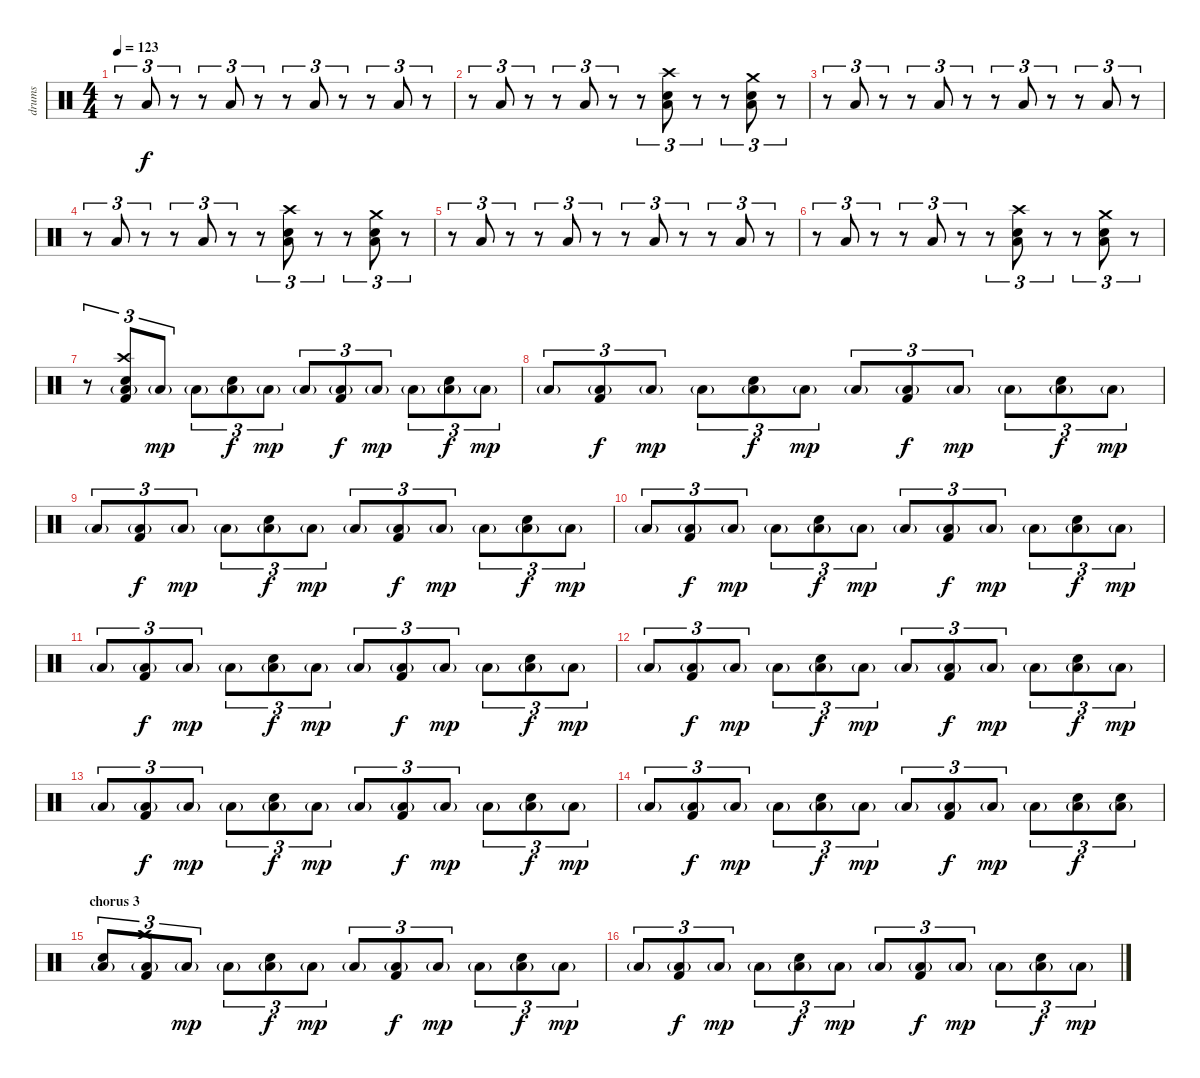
\track ("drums" "drums") {instrument percussion}
\staff {score}
\articulation defaults
\ts (4 4)
\tempo 123
\clef neutral
\ks c
r.8{tu (3 2) txt "" dy f} "Low Floor Tom (hit)".8{tu (3 2) txt ""} r.8{tu (3 2) txt ""} r.8{tu (3 2) txt ""} "Low Floor Tom (hit)".8{tu (3 2) txt ""} r.8{tu (3 2) txt ""} r.8{tu (3 2) txt ""} "Low Floor Tom (hit)".8{tu (3 2) txt ""} r.8{tu (3 2) txt ""} r.8{tu (3 2) txt ""} "Low Floor Tom (hit)".8{tu (3 2) txt ""} r.8{tu (3 2) txt ""} |
r.8{tu (3 2) txt ""} "Low Floor Tom (hit)".8{tu (3 2) txt ""} r.8{tu (3 2) txt ""} r.8{tu (3 2) txt ""} "Low Floor Tom (hit)".8{tu (3 2) txt ""} r.8{tu (3 2) txt ""} r.8{tu (3 2) txt ""} ("Low Floor Tom (hit)" "Electric Snare (hit)" "Crash high (hit)").8{tu (3 2) txt ""} r.8{tu (3 2) txt ""} r.8{tu (3 2) txt ""} ("Low Floor Tom (hit)" "Electric Snare (hit)" "Crash medium (hit)").8{tu (3 2) txt ""} r.8{tu (3 2) txt ""} |
r.8{tu (3 2) txt ""} "Low Floor Tom (hit)".8{tu (3 2) txt ""} r.8{tu (3 2) txt ""} r.8{tu (3 2) txt ""} "Low Floor Tom (hit)".8{tu (3 2) txt ""} r.8{tu (3 2) txt ""} r.8{tu (3 2) txt ""} "Low Floor Tom (hit)".8{tu (3 2) txt ""} r.8{tu (3 2) txt ""} r.8{tu (3 2) txt ""} "Low Floor Tom (hit)".8{tu (3 2) txt ""} r.8{tu (3 2) txt ""} |
r.8{tu (3 2) txt ""} "Low Floor Tom (hit)".8{tu (3 2) txt ""} r.8{tu (3 2) txt ""} r.8{tu (3 2) txt ""} "Low Floor Tom (hit)".8{tu (3 2) txt ""} r.8{tu (3 2) txt ""} r.8{tu (3 2) txt ""} ("Low Floor Tom (hit)" "Electric Snare (hit)" "Crash high (hit)").8{tu (3 2) txt ""} r.8{tu (3 2) txt ""} r.8{tu (3 2) txt ""} ("Low Floor Tom (hit)" "Electric Snare (hit)" "Crash medium (hit)").8{tu (3 2) txt ""} r.8{tu (3 2) txt ""} |
r.8{tu (3 2) txt ""} "Low Floor Tom (hit)".8{tu (3 2) txt ""} r.8{tu (3 2) txt ""} r.8{tu (3 2) txt ""} "Low Floor Tom (hit)".8{tu (3 2) txt ""} r.8{tu (3 2) txt ""} r.8{tu (3 2) txt ""} "Low Floor Tom (hit)".8{tu (3 2) txt ""} r.8{tu (3 2) txt ""} r.8{tu (3 2) txt ""} "Low Floor Tom (hit)".8{tu (3 2) txt ""} r.8{tu (3 2) txt ""} |
r.8{tu (3 2) txt ""} "Low Floor Tom (hit)".8{tu (3 2) txt ""} r.8{tu (3 2) txt ""} r.8{tu (3 2) txt ""} "Low Floor Tom (hit)".8{tu (3 2) txt ""} r.8{tu (3 2) txt ""} r.8{tu (3 2) txt ""} ("Low Floor Tom (hit)" "Electric Snare (hit)" "Crash high (hit)").8{tu (3 2) txt ""} r.8{tu (3 2) txt ""} r.8{tu (3 2) txt ""} ("Low Floor Tom (hit)" "Electric Snare (hit)" "Crash medium (hit)").8{tu (3 2) txt ""} r.8{tu (3 2) txt ""} |
r.8{tu (3 2) txt ""} ("Low Floor Tom (hit)"{g} "Kick (hit) 2" "Electric Snare (hit)" "Crash high (hit)").8{tu (3 2) txt ""} "Low Floor Tom (hit)"{g}.8{tu (3 2) txt "" dy mp} "Low Floor Tom (hit)"{g}.8{tu (3 2) txt ""} ("Low Floor Tom (hit)"{g} "Electric Snare (hit)").8{tu (3 2) txt "" dy f} "Low Floor Tom (hit)"{g}.8{tu (3 2) txt "" dy mp} "Low Floor Tom (hit)"{g}.8{tu (3 2) txt ""} ("Low Floor Tom (hit)"{g} "Kick (hit) 2").8{tu (3 2) txt "" dy f} "Low Floor Tom (hit)"{g}.8{tu (3 2) txt "" dy mp} "Low Floor Tom (hit)"{g}.8{tu (3 2) txt ""} ("Low Floor Tom (hit)"{g} "Electric Snare (hit)").8{tu (3 2) txt "" dy f} "Low Floor Tom (hit)"{g}.8{tu (3 2) txt "" dy mp} |
"Low Floor Tom (hit)"{g}.8{tu (3 2) txt ""} ("Low Floor Tom (hit)"{g} "Kick (hit) 2").8{tu (3 2) txt "" dy f} "Low Floor Tom (hit)"{g}.8{tu (3 2) txt "" dy mp} "Low Floor Tom (hit)"{g}.8{tu (3 2) txt ""} ("Low Floor Tom (hit)"{g} "Electric Snare (hit)").8{tu (3 2) txt "" dy f} "Low Floor Tom (hit)"{g}.8{tu (3 2) txt "" dy mp} "Low Floor Tom (hit)"{g}.8{tu (3 2) txt ""} ("Low Floor Tom (hit)"{g} "Kick (hit) 2").8{tu (3 2) txt "" dy f} "Low Floor Tom (hit)"{g}.8{tu (3 2) txt "" dy mp} "Low Floor Tom (hit)"{g}.8{tu (3 2) txt ""} ("Low Floor Tom (hit)"{g} "Electric Snare (hit)").8{tu (3 2) txt "" dy f} "Low Floor Tom (hit)"{g}.8{tu (3 2) txt "" dy mp} |
"Low Floor Tom (hit)"{g}.8{tu (3 2) txt ""} ("Low Floor Tom (hit)"{g} "Kick (hit) 2").8{tu (3 2) txt "" dy f} "Low Floor Tom (hit)"{g}.8{tu (3 2) txt "" dy mp} "Low Floor Tom (hit)"{g}.8{tu (3 2) txt ""} ("Low Floor Tom (hit)"{g} "Electric Snare (hit)").8{tu (3 2) txt "" dy f} "Low Floor Tom (hit)"{g}.8{tu (3 2) txt "" dy mp} "Low Floor Tom (hit)"{g}.8{tu (3 2) txt ""} ("Low Floor Tom (hit)"{g} "Kick (hit) 2").8{tu (3 2) txt "" dy f} "Low Floor Tom (hit)"{g}.8{tu (3 2) txt "" dy mp} "Low Floor Tom (hit)"{g}.8{tu (3 2) txt ""} ("Low Floor Tom (hit)"{g} "Electric Snare (hit)").8{tu (3 2) txt "" dy f} "Low Floor Tom (hit)"{g}.8{tu (3 2) txt "" dy mp} |
"Low Floor Tom (hit)"{g}.8{tu (3 2) txt ""} ("Low Floor Tom (hit)"{g} "Kick (hit) 2").8{tu (3 2) txt "" dy f} "Low Floor Tom (hit)"{g}.8{tu (3 2) txt "" dy mp} "Low Floor Tom (hit)"{g}.8{tu (3 2) txt ""} ("Low Floor Tom (hit)"{g} "Electric Snare (hit)").8{tu (3 2) txt "" dy f} "Low Floor Tom (hit)"{g}.8{tu (3 2) txt "" dy mp} "Low Floor Tom (hit)"{g}.8{tu (3 2) txt ""} ("Low Floor Tom (hit)"{g} "Kick (hit) 2").8{tu (3 2) txt "" dy f} "Low Floor Tom (hit)"{g}.8{tu (3 2) txt "" dy mp} "Low Floor Tom (hit)"{g}.8{tu (3 2) txt ""} ("Low Floor Tom (hit)"{g} "Electric Snare (hit)").8{tu (3 2) txt "" dy f} "Low Floor Tom (hit)"{g}.8{tu (3 2) txt "" dy mp} |
"Low Floor Tom (hit)"{g}.8{tu (3 2) txt ""} ("Low Floor Tom (hit)"{g} "Kick (hit) 2").8{tu (3 2) txt "" dy f} "Low Floor Tom (hit)"{g}.8{tu (3 2) txt "" dy mp} "Low Floor Tom (hit)"{g}.8{tu (3 2) txt ""} ("Low Floor Tom (hit)"{g} "Electric Snare (hit)").8{tu (3 2) txt "" dy f} "Low Floor Tom (hit)"{g}.8{tu (3 2) txt "" dy mp} "Low Floor Tom (hit)"{g}.8{tu (3 2) txt ""} ("Low Floor Tom (hit)"{g} "Kick (hit) 2").8{tu (3 2) txt "" dy f} "Low Floor Tom (hit)"{g}.8{tu (3 2) txt "" dy mp} "Low Floor Tom (hit)"{g}.8{tu (3 2) txt ""} ("Low Floor Tom (hit)"{g} "Electric Snare (hit)").8{tu (3 2) txt "" dy f} "Low Floor Tom (hit)"{g}.8{tu (3 2) txt "" dy mp} |
"Low Floor Tom (hit)"{g}.8{tu (3 2) txt ""} ("Low Floor Tom (hit)"{g} "Kick (hit) 2").8{tu (3 2) txt "" dy f} "Low Floor Tom (hit)"{g}.8{tu (3 2) txt "" dy mp} "Low Floor Tom (hit)"{g}.8{tu (3 2) txt ""} ("Low Floor Tom (hit)"{g} "Electric Snare (hit)").8{tu (3 2) txt "" dy f} "Low Floor Tom (hit)"{g}.8{tu (3 2) txt "" dy mp} "Low Floor Tom (hit)"{g}.8{tu (3 2) txt ""} ("Low Floor Tom (hit)"{g} "Kick (hit) 2").8{tu (3 2) txt "" dy f} "Low Floor Tom (hit)"{g}.8{tu (3 2) txt "" dy mp} "Low Floor Tom (hit)"{g}.8{tu (3 2) txt ""} ("Low Floor Tom (hit)"{g} "Electric Snare (hit)").8{tu (3 2) txt "" dy f} "Low Floor Tom (hit)"{g}.8{tu (3 2) txt "" dy mp} |
"Low Floor Tom (hit)"{g}.8{tu (3 2) txt ""} ("Low Floor Tom (hit)"{g} "Kick (hit) 2").8{tu (3 2) txt "" dy f} "Low Floor Tom (hit)"{g}.8{tu (3 2) txt "" dy mp} "Low Floor Tom (hit)"{g}.8{tu (3 2) txt ""} ("Low Floor Tom (hit)"{g} "Electric Snare (hit)").8{tu (3 2) txt "" dy f} "Low Floor Tom (hit)"{g}.8{tu (3 2) txt "" dy mp} "Low Floor Tom (hit)"{g}.8{tu (3 2) txt ""} ("Low Floor Tom (hit)"{g} "Kick (hit) 2").8{tu (3 2) txt "" dy f} "Low Floor Tom (hit)"{g}.8{tu (3 2) txt "" dy mp} "Low Floor Tom (hit)"{g}.8{tu (3 2) txt ""} ("Low Floor Tom (hit)"{g} "Electric Snare (hit)").8{tu (3 2) txt "" dy f} "Low Floor Tom (hit)"{g}.8{tu (3 2) txt "" dy mp} |
"Low Floor Tom (hit)"{g}.8{tu (3 2) txt ""} ("Low Floor Tom (hit)"{g} "Kick (hit) 2").8{tu (3 2) txt "" dy f} "Low Floor Tom (hit)"{g}.8{tu (3 2) txt "" dy mp} "Low Floor Tom (hit)"{g}.8{tu (3 2) txt ""} ("Low Floor Tom (hit)"{g} "Electric Snare (hit)").8{tu (3 2) txt "" dy f} "Low Floor Tom (hit)"{g}.8{tu (3 2) txt "" dy mp} "Low Floor Tom (hit)"{g}.8{tu (3 2) txt ""} ("Low Floor Tom (hit)"{g} "Kick (hit) 2").8{tu (3 2) txt "" dy f} "Low Floor Tom (hit)"{g}.8{tu (3 2) txt "" dy mp} "Low Floor Tom (hit)"{g}.8{tu (3 2) txt ""} ("Low Floor Tom (hit)"{g} "Electric Snare (hit)").8{tu (3 2) txt "" dy f} ("Low Floor Tom (hit)"{g} "Electric Snare (hit)").8{tu (3 2) txt ""} |
\section ("" "chorus 3")
("Low Floor Tom (hit)"{g} "Electric Snare (hit)").8{tu (3 2) txt ""} ("Low Floor Tom (hit)"{g} "Kick (hit) 2" "Crash high (hit)").8{tu (3 2) txt ""} "Low Floor Tom (hit)"{g}.8{tu (3 2) txt "" dy mp} "Low Floor Tom (hit)"{g}.8{tu (3 2) txt ""} ("Low Floor Tom (hit)"{g} "Electric Snare (hit)").8{tu (3 2) txt "" dy f} "Low Floor Tom (hit)"{g}.8{tu (3 2) txt "" dy mp} "Low Floor Tom (hit)"{g}.8{tu (3 2) txt ""} ("Low Floor Tom (hit)"{g} "Kick (hit) 2").8{tu (3 2) txt "" dy f} "Low Floor Tom (hit)"{g}.8{tu (3 2) txt "" dy mp} "Low Floor Tom (hit)"{g}.8{tu (3 2) txt ""} ("Low Floor Tom (hit)"{g} "Electric Snare (hit)").8{tu (3 2) txt "" dy f} "Low Floor Tom (hit)"{g}.8{tu (3 2) txt "" dy mp} |
"Low Floor Tom (hit)"{g}.8{tu (3 2) txt ""} ("Low Floor Tom (hit)"{g} "Kick (hit) 2").8{tu (3 2) txt "" dy f} "Low Floor Tom (hit)"{g}.8{tu (3 2) txt "" dy mp} "Low Floor Tom (hit)"{g}.8{tu (3 2) txt ""} ("Low Floor Tom (hit)"{g} "Electric Snare (hit)").8{tu (3 2) txt "" dy f} "Low Floor Tom (hit)"{g}.8{tu (3 2) txt "" dy mp} "Low Floor Tom (hit)"{g}.8{tu (3 2) txt ""} ("Low Floor Tom (hit)"{g} "Kick (hit) 2").8{tu (3 2) txt "" dy f} "Low Floor Tom (hit)"{g}.8{tu (3 2) txt "" dy mp} "Low Floor Tom (hit)"{g}.8{tu (3 2) txt ""} ("Low Floor Tom (hit)"{g} "Electric Snare (hit)").8{tu (3 2) txt "" dy f} "Low Floor Tom (hit)"{g}.8{tu (3 2) txt "" dy mp}
